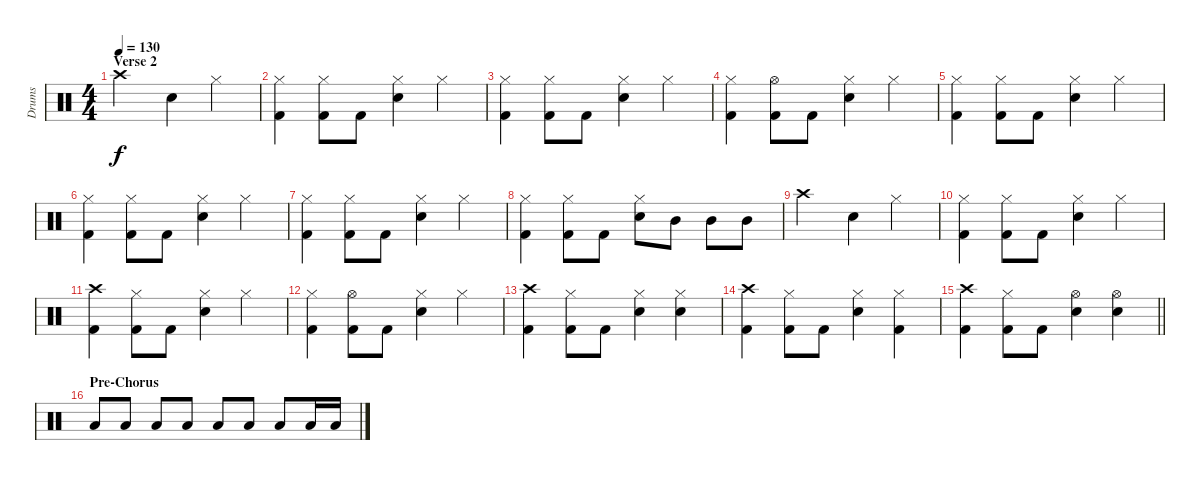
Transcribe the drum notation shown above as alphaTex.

\track ("Drums" "Drums") {instrument percussion}
\staff {score}
\articulation defaults
\ts (4 4)
\section ("" "Verse 2")
\tempo 130
\clef neutral
\ks c "Crash high (hit)".2{dy f} "Snare (hit) 2".4 "Hi-Hat (closed)".4
|
("Hi-Hat (closed)" "Kick (hit) 2").4 ("Hi-Hat (closed)" "Kick (hit) 2").8 "Kick (hit) 2".8 ("Hi-Hat (closed)" "Snare (hit) 2").4 "Hi-Hat (closed)".4 |
("Hi-Hat (closed)" "Kick (hit) 2").4 ("Hi-Hat (closed)" "Kick (hit) 2").8 "Kick (hit) 2".8 ("Hi-Hat (closed)" "Snare (hit) 2").4 "Hi-Hat (closed)".4 |
("Hi-Hat (closed)" "Kick (hit) 2").4 ("Hi-Hat (open)" "Kick (hit) 2").8 "Kick (hit) 2".8 ("Hi-Hat (closed)" "Snare (hit) 2").4 "Hi-Hat (closed)".4 |
("Hi-Hat (closed)" "Kick (hit) 2").4 ("Hi-Hat (closed)" "Kick (hit) 2").8 "Kick (hit) 2".8 ("Hi-Hat (closed)" "Snare (hit) 2").4 "Hi-Hat (closed)".4 |
("Hi-Hat (closed)" "Kick (hit) 2").4 ("Hi-Hat (closed)" "Kick (hit) 2").8 "Kick (hit) 2".8 ("Hi-Hat (closed)" "Snare (hit) 2").4 "Hi-Hat (closed)".4 |
("Hi-Hat (closed)" "Kick (hit) 2").4 ("Hi-Hat (closed)" "Kick (hit) 2").8 "Kick (hit) 2".8 ("Hi-Hat (closed)" "Snare (hit) 2").4 "Hi-Hat (closed)".4 |
("Hi-Hat (closed)" "Kick (hit) 2").4 ("Hi-Hat (closed)" "Kick (hit) 2").8 "Kick (hit) 2".8 ("Hi-Hat (closed)" "Snare (hit) 2").8 "Mid Tom (hit)".8 "Mid Tom (hit)".8 "Mid Tom (hit)".8 |
"Crash high (hit)".2 "Snare (hit) 2".4 "Hi-Hat (closed)".4 |
("Hi-Hat (closed)" "Kick (hit) 2").4 ("Hi-Hat (closed)" "Kick (hit) 2").8 "Kick (hit) 2".8 ("Hi-Hat (closed)" "Snare (hit) 2").4 "Hi-Hat (closed)".4 |
("Crash high (hit)" "Kick (hit) 2").4 ("Hi-Hat (closed)" "Kick (hit) 2").8 "Kick (hit) 2".8 ("Hi-Hat (closed)" "Snare (hit) 2").4 "Hi-Hat (closed)".4 |
("Hi-Hat (closed)" "Kick (hit) 2").4 ("Hi-Hat (open)" "Kick (hit) 2").8 "Kick (hit) 2".8 ("Hi-Hat (closed)" "Snare (hit) 2").4 "Hi-Hat (closed)".4 |
("Crash high (hit)" "Kick (hit) 2").4 ("Hi-Hat (closed)" "Kick (hit) 2").8 "Kick (hit) 2".8 ("Hi-Hat (closed)" "Snare (hit) 2").4 ("Hi-Hat (closed)" "Snare (hit) 2").4 |
("Crash high (hit)" "Kick (hit) 2").4 ("Hi-Hat (closed)" "Kick (hit) 2").8 "Kick (hit) 2".8 ("Hi-Hat (closed)" "Snare (hit) 2").4 ("Hi-Hat (closed)" "Kick (hit) 2").4 |
\barLineRight lightlight
("Crash high (hit)" "Kick (hit) 2").4 ("Hi-Hat (closed)" "Kick (hit) 2").8 "Kick (hit) 2".8 ("Hi-Hat (open)" "Snare (hit) 2").4 ("Hi-Hat (open)" "Snare (hit) 2").4 |
\section ("" "Pre-Chorus")
"Low Tom (hit)".8 "Low Tom (hit)".8 "Low Tom (hit)".8 "Low Tom (hit)".8 "Low Tom (hit)".8 "Low Tom (hit)".8 "Low Tom (hit)".8 "Low Tom (hit)".16 "Low Tom (hit)".16
